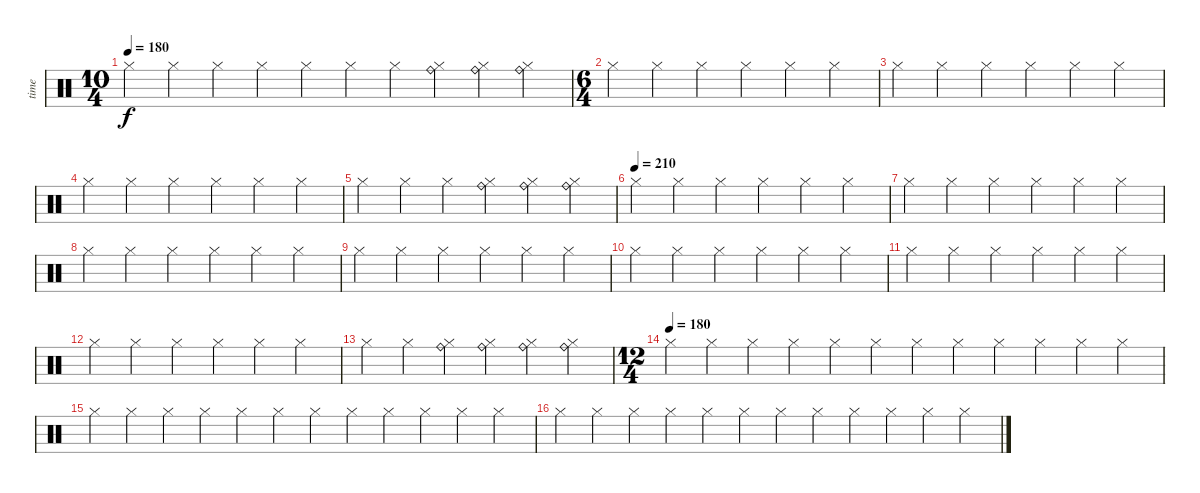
\track ("time" "time") {instrument percussion}
\staff {score}
\articulation defaults
\ts (10 4)
\tempo 180
\clef neutral
\ks c "Hi-Hat (closed)".4{dy f} "Hi-Hat (closed)".4 "Hi-Hat (closed)".4 "Hi-Hat (closed)".4 "Hi-Hat (closed)".4 "Hi-Hat (closed)".4 "Hi-Hat (closed)".4
("Hi-Hat (closed)" "Ride (bell)").4 ("Hi-Hat (closed)" "Ride (bell)").4 ("Hi-Hat (closed)" "Ride (bell)").4 |
\ts (6 4)
"Hi-Hat (closed)".4 "Hi-Hat (closed)".4 "Hi-Hat (closed)".4 "Hi-Hat (closed)".4 "Hi-Hat (closed)".4 "Hi-Hat (closed)".4 |
"Hi-Hat (closed)".4 "Hi-Hat (closed)".4 "Hi-Hat (closed)".4 "Hi-Hat (closed)".4 "Hi-Hat (closed)".4 "Hi-Hat (closed)".4 |
"Hi-Hat (closed)".4 "Hi-Hat (closed)".4 "Hi-Hat (closed)".4 "Hi-Hat (closed)".4 "Hi-Hat (closed)".4 "Hi-Hat (closed)".4 |
"Hi-Hat (closed)".4 "Hi-Hat (closed)".4 "Hi-Hat (closed)".4 ("Hi-Hat (closed)" "Ride (bell)").4 ("Hi-Hat (closed)" "Ride (bell)").4 ("Hi-Hat (closed)" "Ride (bell)").4 |
\tempo (210)
"Hi-Hat (closed)".4 "Hi-Hat (closed)".4 "Hi-Hat (closed)".4 "Hi-Hat (closed)".4 "Hi-Hat (closed)".4 "Hi-Hat (closed)".4 |
"Hi-Hat (closed)".4 "Hi-Hat (closed)".4 "Hi-Hat (closed)".4 "Hi-Hat (closed)".4 "Hi-Hat (closed)".4 "Hi-Hat (closed)".4 |
"Hi-Hat (closed)".4 "Hi-Hat (closed)".4 "Hi-Hat (closed)".4 "Hi-Hat (closed)".4 "Hi-Hat (closed)".4 "Hi-Hat (closed)".4 |
"Hi-Hat (closed)".4 "Hi-Hat (closed)".4 "Hi-Hat (closed)".4 "Hi-Hat (closed)".4 "Hi-Hat (closed)".4 "Hi-Hat (closed)".4 |
"Hi-Hat (closed)".4 "Hi-Hat (closed)".4 "Hi-Hat (closed)".4 "Hi-Hat (closed)".4 "Hi-Hat (closed)".4 "Hi-Hat (closed)".4 |
"Hi-Hat (closed)".4 "Hi-Hat (closed)".4 "Hi-Hat (closed)".4 "Hi-Hat (closed)".4 "Hi-Hat (closed)".4 "Hi-Hat (closed)".4 |
"Hi-Hat (closed)".4 "Hi-Hat (closed)".4 "Hi-Hat (closed)".4 "Hi-Hat (closed)".4 "Hi-Hat (closed)".4 "Hi-Hat (closed)".4 |
"Hi-Hat (closed)".4 "Hi-Hat (closed)".4 ("Hi-Hat (closed)" "Ride (bell)").4 ("Hi-Hat (closed)" "Ride (bell)").4 ("Hi-Hat (closed)" "Ride (bell)").4 ("Hi-Hat (closed)" "Ride (bell)").4 |
\ts (12 4)
\tempo (180)
"Hi-Hat (closed)".4 "Hi-Hat (closed)".4 "Hi-Hat (closed)".4 "Hi-Hat (closed)".4 "Hi-Hat (closed)".4 "Hi-Hat (closed)".4 "Hi-Hat (closed)".4 "Hi-Hat (closed)".4 "Hi-Hat (closed)".4 "Hi-Hat (closed)".4 "Hi-Hat (closed)".4 "Hi-Hat (closed)".4 |
"Hi-Hat (closed)".4 "Hi-Hat (closed)".4 "Hi-Hat (closed)".4 "Hi-Hat (closed)".4 "Hi-Hat (closed)".4 "Hi-Hat (closed)".4 "Hi-Hat (closed)".4 "Hi-Hat (closed)".4 "Hi-Hat (closed)".4 "Hi-Hat (closed)".4 "Hi-Hat (closed)".4 "Hi-Hat (closed)".4 |
"Hi-Hat (closed)".4 "Hi-Hat (closed)".4 "Hi-Hat (closed)".4 "Hi-Hat (closed)".4 "Hi-Hat (closed)".4 "Hi-Hat (closed)".4 "Hi-Hat (closed)".4 "Hi-Hat (closed)".4 "Hi-Hat (closed)".4 "Hi-Hat (closed)".4 "Hi-Hat (closed)".4 "Hi-Hat (closed)".4
